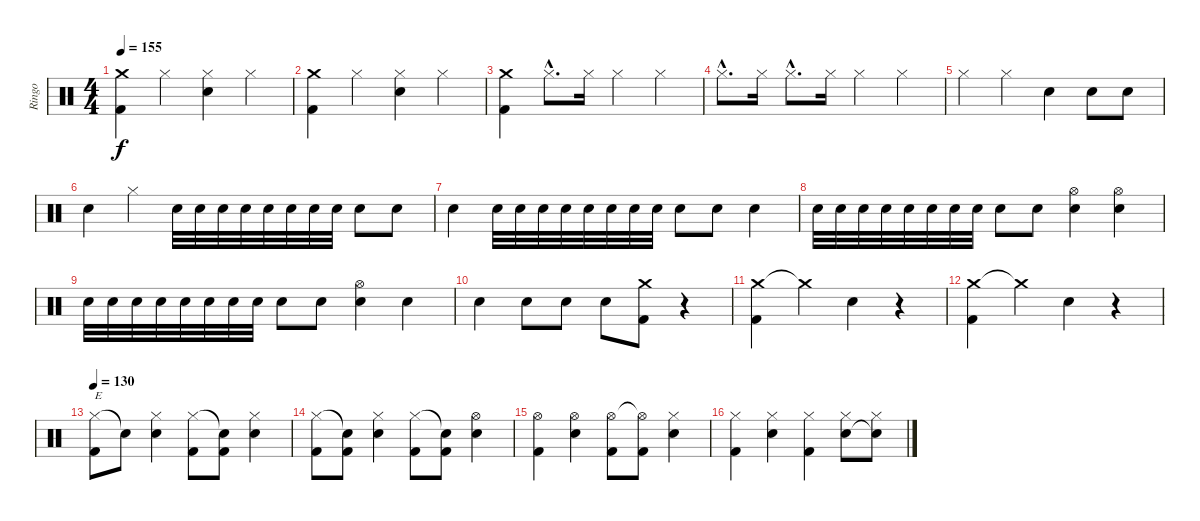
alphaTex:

\track ("Ringo" "Ringo") {instrument percussion}
\staff {score}
\articulation defaults
\ts (4 4)
\tempo 155
\clef neutral
\ks c
("Crash medium (hit)" "Kick (hit) 2").4{dy f} "Hi-Hat (closed)".4 ("Hi-Hat (closed)" "Snare (hit) 2").4 "Hi-Hat (closed)".4 |
("Crash medium (hit)" "Kick (hit) 2").4 "Hi-Hat (closed)".4 ("Hi-Hat (closed)" "Snare (hit) 2").4 "Hi-Hat (closed)".4 |
("Crash medium (hit)" "Kick (hit) 2").4 "Hi-Hat (closed)"{hac}.8{d} "Hi-Hat (closed)".16 "Hi-Hat (closed)".4 "Hi-Hat (closed)".4 |
"Hi-Hat (closed)"{hac}.8{d} "Hi-Hat (closed)".16 "Hi-Hat (closed)"{hac}.8{d} "Hi-Hat (closed)".16 "Hi-Hat (closed)".4 "Hi-Hat (closed)".4 |
"Hi-Hat (closed)".4 "Hi-Hat (closed)".4 "Snare (hit) 2".4 "Snare (hit) 2".8 "Snare (hit) 2".8 |
"Snare (hit) 2".4 "Hi-Hat (closed)".4 "Snare (hit) 2".32 "Snare (hit) 2".32 "Snare (hit) 2".32 "Snare (hit) 2".32 "Snare (hit) 2".32 "Snare (hit) 2".32 "Snare (hit) 2".32 "Snare (hit) 2".32 "Snare (hit) 2".8 "Snare (hit) 2".8 |
"Snare (hit) 2".4 "Snare (hit) 2".32 "Snare (hit) 2".32 "Snare (hit) 2".32 "Snare (hit) 2".32 "Snare (hit) 2".32 "Snare (hit) 2".32 "Snare (hit) 2".32 "Snare (hit) 2".32 "Snare (hit) 2".8 "Snare (hit) 2".8 "Snare (hit) 2".4 |
"Snare (hit) 2".32 "Snare (hit) 2".32 "Snare (hit) 2".32 "Snare (hit) 2".32 "Snare (hit) 2".32 "Snare (hit) 2".32 "Snare (hit) 2".32 "Snare (hit) 2".32 "Snare (hit) 2".8 "Snare (hit) 2".8 ("Hi-Hat (open)" "Snare (hit) 2").4 ("Hi-Hat (open)" "Snare (hit) 2").4 |
"Snare (hit) 2".32 "Snare (hit) 2".32 "Snare (hit) 2".32 "Snare (hit) 2".32 "Snare (hit) 2".32 "Snare (hit) 2".32 "Snare (hit) 2".32 "Snare (hit) 2".32 "Snare (hit) 2".8 "Snare (hit) 2".8 ("Hi-Hat (open)" "Snare (hit) 2").4 "Snare (hit) 2".4 |
"Snare (hit) 2".4 "Snare (hit) 2".8 "Snare (hit) 2".8 "Snare (hit) 2".8 ("Crash medium (hit)" "Kick (hit) 2").8 r.4 |
("Crash medium (hit)" "Kick (hit) 2").4 "Crash medium (hit)"{t}.4 "Snare (hit) 2".4 r.4 |
("Crash medium (hit)" "Kick (hit) 2").4 "Crash medium (hit)"{t}.4 "Snare (hit) 2".4 r.4 |
\tempo 130
("Hi-Hat (closed)" "Kick (hit) 2").8{txt "E"} "Snare (hit)"{t}.8 ("Hi-Hat (closed)" "Snare (hit) 2").4 ("Hi-Hat (closed)" "Kick (hit) 2").8 ("Snare (hit)"{t} "Kick (hit) 2").8 ("Hi-Hat (closed)" "Snare (hit) 2").4 |
("Hi-Hat (closed)" "Kick (hit) 2").8 ("Snare (hit)"{t} "Kick (hit) 2").8 ("Hi-Hat (closed)" "Snare (hit) 2").4 ("Hi-Hat (closed)" "Kick (hit) 2").8 ("Snare (hit)"{t} "Kick (hit) 2").8 ("Hi-Hat (open)" "Snare (hit) 2").4 |
("Hi-Hat (open)" "Kick (hit) 2").4 ("Hi-Hat (open)" "Snare (hit) 2").4 ("Hi-Hat (open)" "Kick (hit) 2").8 ("Hi-Hat (open)"{t} "Kick (hit) 2").8 ("Hi-Hat (closed)" "Snare (hit) 2").4 |
("Hi-Hat (closed)" "Kick (hit) 2").4 ("Hi-Hat (closed)" "Snare (hit) 2").4 ("Hi-Hat (closed)" "Kick (hit) 2").4 ("Hi-Hat (closed)" "Snare (hit) 2").8 ("Hi-Hat (closed)" "Snare (hit) 2"{t}).8
